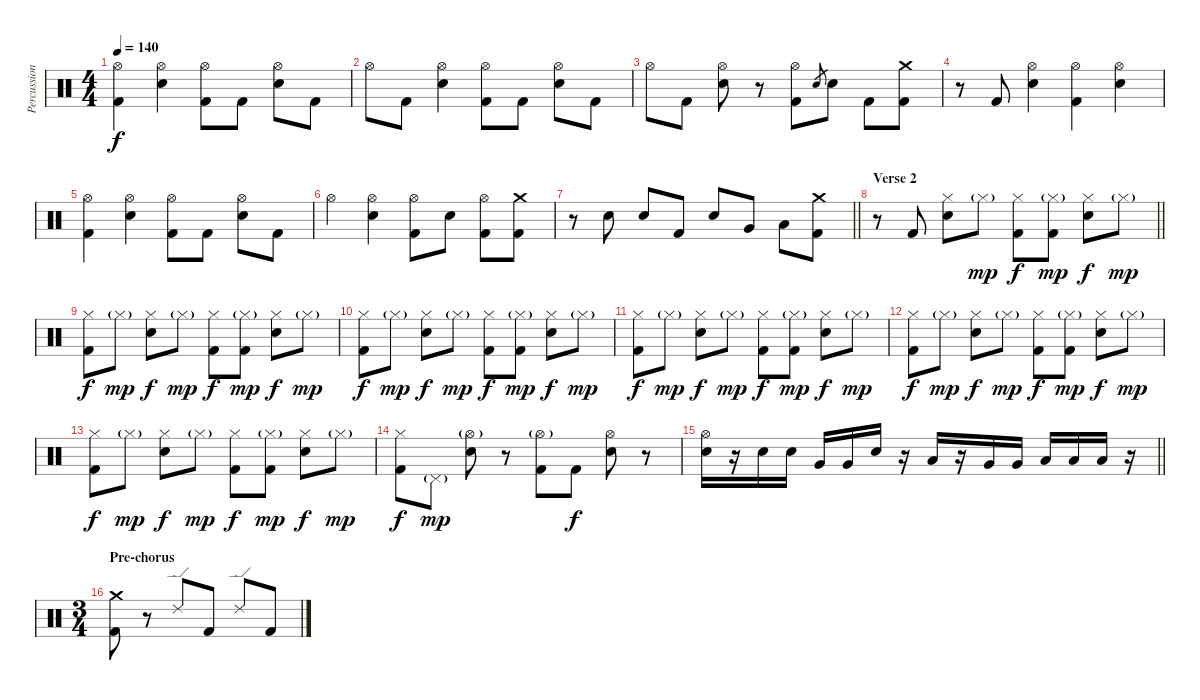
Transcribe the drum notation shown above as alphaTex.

\track ("Percussion" "Percussion") {instrument percussion}
\staff {score}
\articulation defaults
\ts (4 4)
\tempo 140
\clef neutral
\ks c
("Hi-Hat (open)" "Kick (hit) 2").4{dy f} ("Hi-Hat (open)" "Electric Snare (hit)").4 ("Hi-Hat (open)" "Kick (hit) 2").8 "Kick (hit) 2".8 ("Hi-Hat (open)" "Electric Snare (hit)").8 "Kick (hit) 2".8 |
"Hi-Hat (open)".8 "Kick (hit) 2".8 ("Hi-Hat (open)" "Electric Snare (hit)").4 ("Hi-Hat (open)" "Kick (hit) 2").8 "Kick (hit) 2".8 ("Hi-Hat (open)" "Electric Snare (hit)").8 "Kick (hit) 2".8 |
"Hi-Hat (open)".8 "Kick (hit) 2".8 ("Hi-Hat (open)" "Electric Snare (hit)").8 r.8 ("Hi-Hat (open)" "Kick (hit) 2").8 "Electric Snare (hit)".8{gr} "Electric Snare (hit)".8 "Kick (hit) 2".8 ("Crash medium (hit)" "Kick (hit) 2").8 |
r.8 "Kick (hit) 2".8 ("Hi-Hat (open)" "Electric Snare (hit)").4 ("Hi-Hat (open)" "Kick (hit) 2").4 ("Hi-Hat (open)" "Electric Snare (hit)").4 |
("Hi-Hat (open)" "Kick (hit) 2").4 ("Hi-Hat (open)" "Electric Snare (hit)").4 ("Hi-Hat (open)" "Kick (hit) 2").8 "Kick (hit) 2".8 ("Hi-Hat (open)" "Electric Snare (hit)").8 "Kick (hit) 2".8 |
"Hi-Hat (open)".4 ("Hi-Hat (open)" "Electric Snare (hit)").4 ("Hi-Hat (open)" "Kick (hit) 2").8 "Electric Snare (hit)".8 ("Hi-Hat (open)" "Kick (hit) 2").8 ("Crash medium (hit)" "Kick (hit) 2").8 |
\barLineRight lightlight
r.8 "Electric Snare (hit)".8 "Electric Snare (hit)".8 "Kick (hit) 2".8 "Electric Snare (hit)".8 "Very Low Tom (hit)".8 "Low Tom (hit)".8 ("Crash medium (hit)" "Kick (hit) 2").8 |
\section ("" "Verse 2")
\barLineRight lightlight
r.8 "Kick (hit) 2".8 ("Hi-Hat (closed)" "Electric Snare (hit)").8 "Hi-Hat (closed)"{g}.8{dy mp} ("Hi-Hat (closed)" "Kick (hit) 2").8{dy f} ("Hi-Hat (closed)"{g} "Kick (hit) 2").8{dy mp} ("Hi-Hat (closed)" "Electric Snare (hit)").8{dy f} "Hi-Hat (closed)"{g}.8{dy mp} |
("Hi-Hat (closed)" "Kick (hit) 2").8{dy f} "Hi-Hat (closed)"{g}.8{dy mp} ("Hi-Hat (closed)" "Electric Snare (hit)").8{dy f} "Hi-Hat (closed)"{g}.8{dy mp} ("Hi-Hat (closed)" "Kick (hit) 2").8{dy f} ("Hi-Hat (closed)"{g} "Kick (hit) 2").8{dy mp} ("Hi-Hat (closed)" "Electric Snare (hit)").8{dy f} "Hi-Hat (closed)"{g}.8{dy mp} |
("Hi-Hat (closed)" "Kick (hit) 2").8{dy f} "Hi-Hat (closed)"{g}.8{dy mp} ("Hi-Hat (closed)" "Electric Snare (hit)").8{dy f} "Hi-Hat (closed)"{g}.8{dy mp} ("Hi-Hat (closed)" "Kick (hit) 2").8{dy f} ("Hi-Hat (closed)"{g} "Kick (hit) 2").8{dy mp} ("Hi-Hat (closed)" "Electric Snare (hit)").8{dy f} "Hi-Hat (closed)"{g}.8{dy mp} |
("Hi-Hat (closed)" "Kick (hit) 2").8{dy f} "Hi-Hat (closed)"{g}.8{dy mp} ("Hi-Hat (closed)" "Electric Snare (hit)").8{dy f} "Hi-Hat (closed)"{g}.8{dy mp} ("Hi-Hat (closed)" "Kick (hit) 2").8{dy f} ("Hi-Hat (closed)"{g} "Kick (hit) 2").8{dy mp} ("Hi-Hat (closed)" "Electric Snare (hit)").8{dy f} "Hi-Hat (closed)"{g}.8{dy mp} |
("Hi-Hat (closed)" "Kick (hit) 2").8{dy f} "Hi-Hat (closed)"{g}.8{dy mp} ("Hi-Hat (closed)" "Electric Snare (hit)").8{dy f} "Hi-Hat (closed)"{g}.8{dy mp} ("Hi-Hat (closed)" "Kick (hit) 2").8{dy f} ("Hi-Hat (closed)"{g} "Kick (hit) 2").8{dy mp} ("Hi-Hat (closed)" "Electric Snare (hit)").8{dy f} "Hi-Hat (closed)"{g}.8{dy mp} |
("Hi-Hat (closed)" "Kick (hit) 2").8{dy f} "Hi-Hat (closed)"{g}.8{dy mp} ("Hi-Hat (closed)" "Electric Snare (hit)").8{dy f} "Hi-Hat (closed)"{g}.8{dy mp} ("Hi-Hat (closed)" "Kick (hit) 2").8{dy f} ("Hi-Hat (closed)"{g} "Kick (hit) 2").8{dy mp} ("Hi-Hat (closed)" "Electric Snare (hit)").8{dy f} "Hi-Hat (closed)"{g}.8{dy mp} |
("Hi-Hat (closed)" "Kick (hit) 2").8{dy f} "Pedal Hi-Hat (hit)"{g}.8{dy mp} ("Hi-Hat (open)"{g} "Electric Snare (hit)").8 r.8 ("Hi-Hat (open)"{g} "Kick (hit) 2").8 "Kick (hit) 2".8{dy f} ("Hi-Hat (open)" "Electric Snare (hit)").8 r.8 |
\barLineRight lightlight
("Hi-Hat (open)" "Electric Snare (hit)").16 r.16 "Electric Snare (hit)".16 "Electric Snare (hit)".16 "Very Low Tom (hit)".16 "Very Low Tom (hit)".16 "Electric Snare (hit)".16 r.16 "Low Tom (hit)".16 r.16 "Very Low Tom (hit)".16 "Very Low Tom (hit)".16 "Low Tom (hit)".16 "Low Tom (hit)".16 "Low Tom (hit)".16 r.16 |
\ts (3 4)
\section ("" "Pre-chorus")
("Crash medium (hit)" "Kick (hit) 2").8 r.8 "Ride (edge) 2".8 "Kick (hit) 2".8 "Ride (edge) 2".8 "Kick (hit) 2".8
